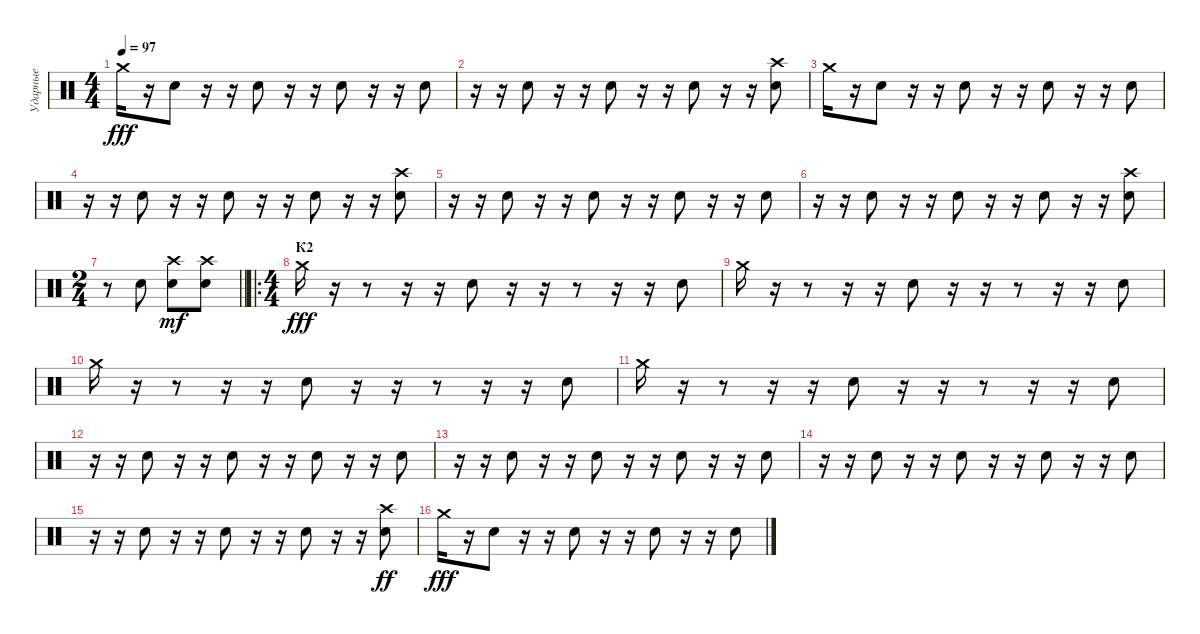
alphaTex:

\track ("Ударные" "Ударные") {instrument percussion}
\staff {score}
\articulation defaults
\ts (4 4)
\tempo 97
\clef neutral
\ks c "Crash medium (hit)".16{dy fff}
r.16 "Electric Snare (hit)".8 r.16 r.16 "Electric Snare (hit)".8 r.16 r.16 "Electric Snare (hit)".8 r.16 r.16 "Electric Snare (hit)".8 |
r.16 r.16 "Electric Snare (hit)".8 r.16 r.16 "Electric Snare (hit)".8 r.16 r.16 "Electric Snare (hit)".8 r.16 r.16 ("Electric Snare (hit)" "Crash high (hit)").8 |
"Crash medium (hit)".16 r.16 "Electric Snare (hit)".8 r.16 r.16 "Electric Snare (hit)".8 r.16 r.16 "Electric Snare (hit)".8 r.16 r.16 "Electric Snare (hit)".8 |
r.16 r.16 "Electric Snare (hit)".8 r.16 r.16 "Electric Snare (hit)".8 r.16 r.16 "Electric Snare (hit)".8 r.16 r.16 ("Electric Snare (hit)" "Crash high (hit)").8 |
r.16 r.16 "Electric Snare (hit)".8 r.16 r.16 "Electric Snare (hit)".8 r.16 r.16 "Electric Snare (hit)".8 r.16 r.16 "Electric Snare (hit)".8 |
r.16 r.16 "Electric Snare (hit)".8 r.16 r.16 "Electric Snare (hit)".8 r.16 r.16 "Electric Snare (hit)".8 r.16 r.16 ("Electric Snare (hit)" "Crash high (hit)").8 |
\ts (2 4)
\barLineRight lightlight
r.8 "Electric Snare (hit)".8 ("Electric Snare (hit)" "Crash high (hit)").8{dy mf} ("Electric Snare (hit)" "Crash high (hit)").8 |
\ro
\ts (4 4)
\section ("" "К2")
"Crash medium (hit)".16{dy fff} r.16 r.8 r.16 r.16 "Electric Snare (hit)".8 r.16 r.16 r.8 r.16 r.16 "Electric Snare (hit)".8 |
"Crash medium (hit)".16 r.16 r.8 r.16 r.16 "Electric Snare (hit)".8 r.16 r.16 r.8 r.16 r.16 "Electric Snare (hit)".8 |
"Crash medium (hit)".16 r.16 r.8 r.16 r.16 "Electric Snare (hit)".8 r.16 r.16 r.8 r.16 r.16 "Electric Snare (hit)".8 |
"Crash medium (hit)".16 r.16 r.8 r.16 r.16 "Electric Snare (hit)".8 r.16 r.16 r.8 r.16 r.16 "Electric Snare (hit)".8 |
r.16 r.16 "Electric Snare (hit)".8 r.16 r.16 "Electric Snare (hit)".8 r.16 r.16 "Electric Snare (hit)".8 r.16 r.16 "Electric Snare (hit)".8 |
r.16 r.16 "Electric Snare (hit)".8 r.16 r.16 "Electric Snare (hit)".8 r.16 r.16 "Electric Snare (hit)".8 r.16 r.16 "Electric Snare (hit)".8 |
r.16 r.16 "Electric Snare (hit)".8 r.16 r.16 "Electric Snare (hit)".8 r.16 r.16 "Electric Snare (hit)".8 r.16 r.16 "Electric Snare (hit)".8 |
r.16 r.16 "Electric Snare (hit)".8 r.16 r.16 "Electric Snare (hit)".8 r.16 r.16 "Electric Snare (hit)".8 r.16 r.16 ("Electric Snare (hit)" "Crash high (hit)").8{dy ff} |
"Crash medium (hit)".16{dy fff} r.16 "Electric Snare (hit)".8 r.16 r.16 "Electric Snare (hit)".8 r.16 r.16 "Electric Snare (hit)".8 r.16 r.16 "Electric Snare (hit)".8
